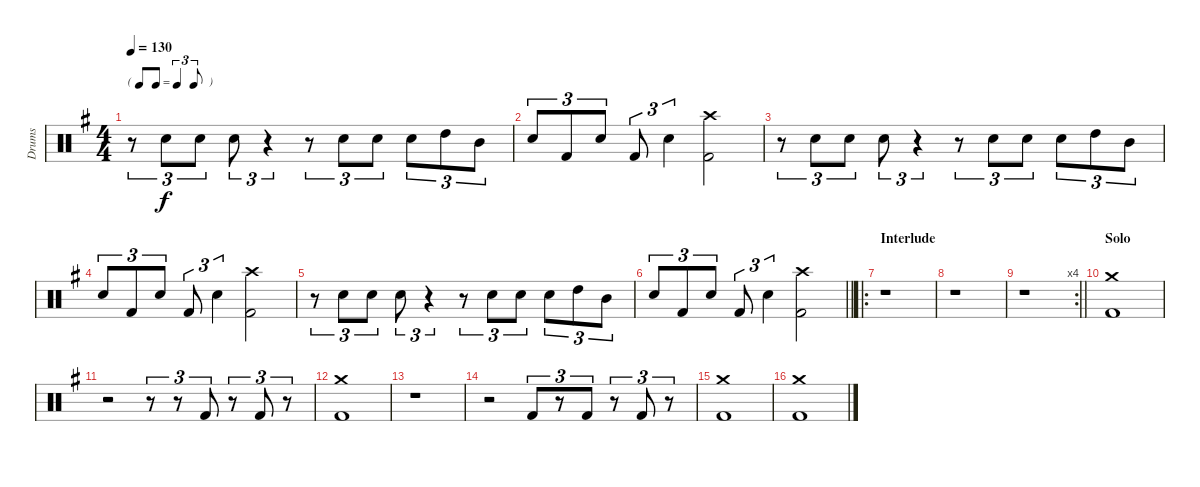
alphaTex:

\track ("Drums" "Drums") {instrument percussion}
\staff {score}
\articulation defaults
\ts (4 4)
\tf triplet8th
\tempo 130
\clef neutral
\ks eminor
r.8{tu (3 2) dy f} "Snare (hit) 2".8{tu (3 2)} "Snare (hit) 2".8{tu (3 2)} "Snare (hit) 2".8{tu (3 2)} r.4{tu (3 2)} r.8{tu (3 2)} "Snare (hit) 2".8{tu (3 2)} "Snare (hit) 2".8{tu (3 2)} "Snare (hit) 2".8{tu (3 2)} "High Tom (hit)".8{tu (3 2)} "Mid Tom (hit)".8{tu (3 2)} |
"Snare (hit) 2".8{tu (3 2)} "Kick (hit) 2".8{tu (3 2)} "Snare (hit) 2".8{tu (3 2)} "Kick (hit) 2".8{tu (3 2)} "Snare (hit) 2".4{tu (3 2)} ("Kick (hit) 2" "Crash high (hit)").2 |
r.8{tu (3 2)} "Snare (hit) 2".8{tu (3 2)} "Snare (hit) 2".8{tu (3 2)} "Snare (hit) 2".8{tu (3 2)} r.4{tu (3 2)} r.8{tu (3 2)} "Snare (hit) 2".8{tu (3 2)} "Snare (hit) 2".8{tu (3 2)} "Snare (hit) 2".8{tu (3 2)} "High Tom (hit)".8{tu (3 2)} "Mid Tom (hit)".8{tu (3 2)} |
"Snare (hit) 2".8{tu (3 2)} "Kick (hit) 2".8{tu (3 2)} "Snare (hit) 2".8{tu (3 2)} "Kick (hit) 2".8{tu (3 2)} "Snare (hit) 2".4{tu (3 2)} ("Kick (hit) 2" "Crash high (hit)").2 |
r.8{tu (3 2)} "Snare (hit) 2".8{tu (3 2)} "Snare (hit) 2".8{tu (3 2)} "Snare (hit) 2".8{tu (3 2)} r.4{tu (3 2)} r.8{tu (3 2)} "Snare (hit) 2".8{tu (3 2)} "Snare (hit) 2".8{tu (3 2)} "Snare (hit) 2".8{tu (3 2)} "High Tom (hit)".8{tu (3 2)} "Mid Tom (hit)".8{tu (3 2)} |
\barLineRight lightlight "Snare (hit) 2".8{tu (3 2)} "Kick (hit) 2".8{tu (3 2)} "Snare (hit) 2".8{tu (3 2)} "Kick (hit) 2".8{tu (3 2)} "Snare (hit) 2".4{tu (3 2)}
("Kick (hit) 2" "Crash high (hit)").2 |
\ro
\section ("" "Interlude")
r.1 |
r.1 |
\rc 4
\barLineRight lightlight
r.1 |
\section ("" "Solo")
("Kick (hit) 2" "Crash medium (hit)").1 |
r.2 r.8{tu (3 2)} r.8{tu (3 2)} "Kick (hit) 2".8{tu (3 2)} r.8{tu (3 2)} "Kick (hit) 2".8{tu (3 2)} r.8{tu (3 2)} |
("Kick (hit) 2" "Crash medium (hit)").1 |
r.1 |
r.2 "Kick (hit) 2".8{tu (3 2)} r.8{tu (3 2)} "Kick (hit) 2".8{tu (3 2)} r.8{tu (3 2)} "Kick (hit) 2".8{tu (3 2)} r.8{tu (3 2)} |
("Kick (hit) 2" "Crash medium (hit)").1 |
("Kick (hit) 2" "Crash medium (hit)").1
